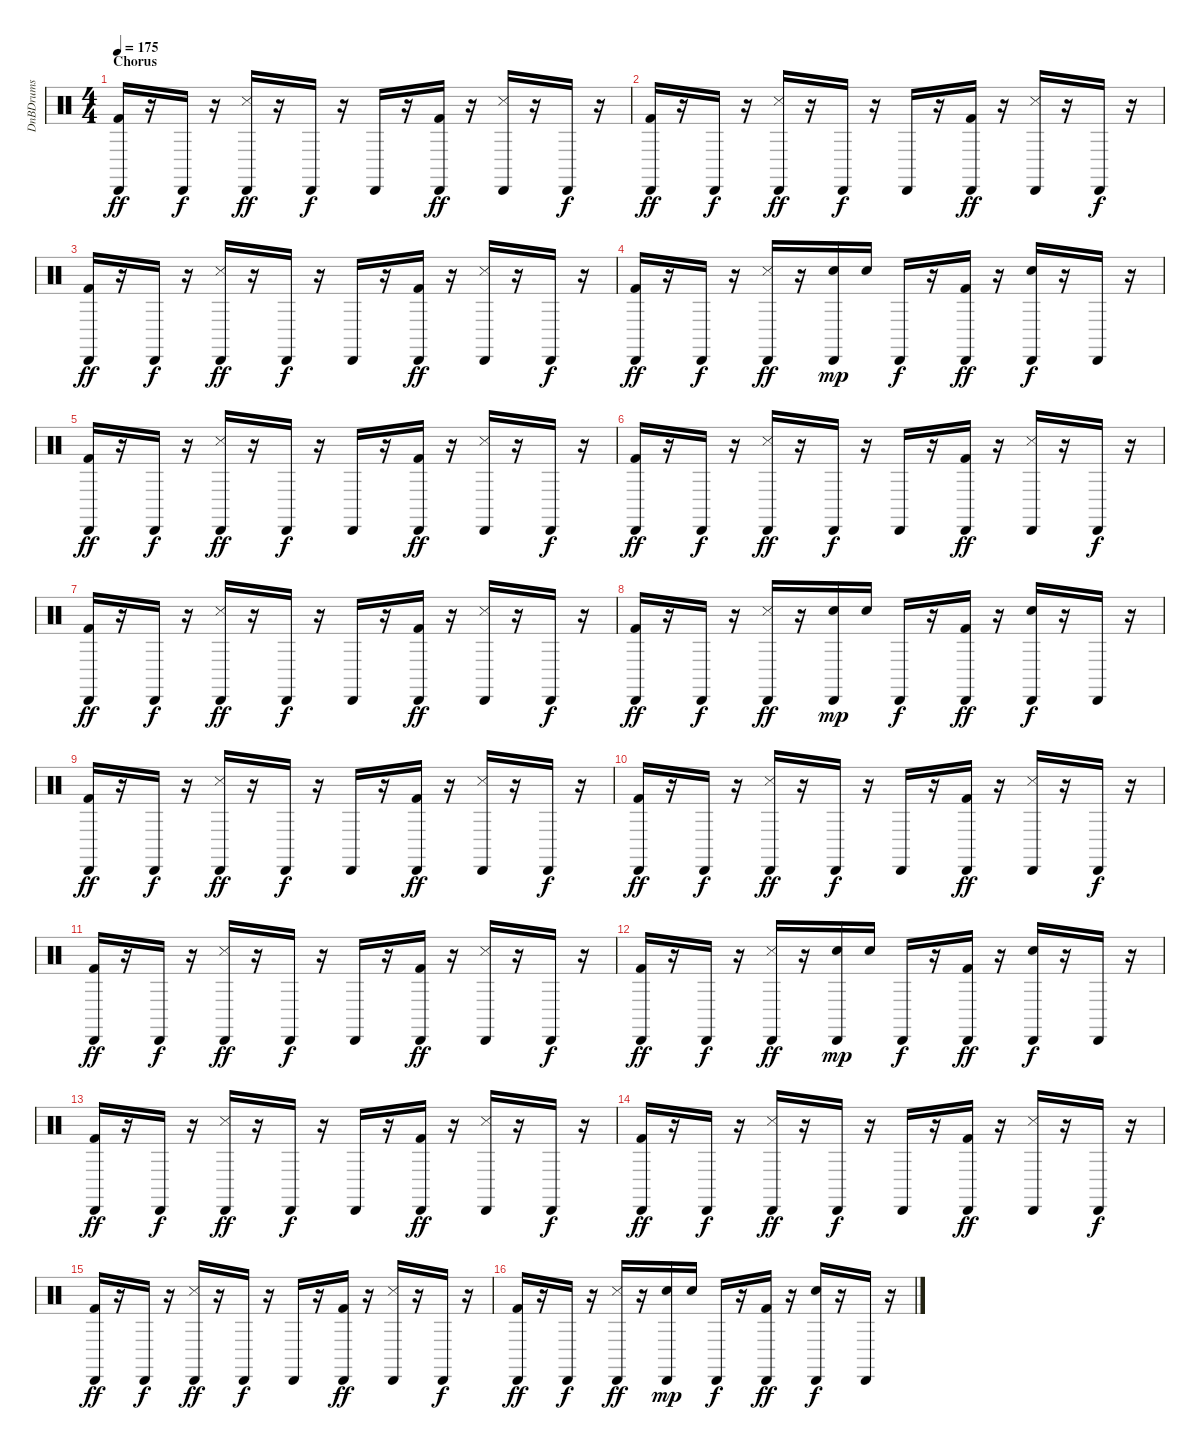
\track ("DnBDrums" "DnBDrums") {instrument percussion}
\staff {score}
\articulation defaults
\ts (4 4)
\section ("" "Chorus")
\tempo 175
\clef neutral
\ks c
("Kick (hit) 2" "Cabasa (hit)").16{dy ff} r.16 "Cabasa (hit)".16{dy f} r.16 ("Snare (side stick) 3" "Cabasa (hit)").16{dy ff} r.16 "Cabasa (hit)".16{dy f} r.16 "Cabasa (hit)".16 r.16 ("Kick (hit) 2" "Cabasa (hit)").16{dy ff} r.16 ("Snare (side stick) 3" "Cabasa (hit)").16 r.16 "Cabasa (hit)".16{dy f} r.16 |
("Kick (hit) 2" "Cabasa (hit)").16{dy ff} r.16 "Cabasa (hit)".16{dy f} r.16 ("Snare (side stick) 3" "Cabasa (hit)").16{dy ff} r.16 "Cabasa (hit)".16{dy f} r.16 "Cabasa (hit)".16 r.16 ("Kick (hit) 2" "Cabasa (hit)").16{dy ff} r.16 ("Snare (side stick) 3" "Cabasa (hit)").16 r.16 "Cabasa (hit)".16{dy f} r.16 |
("Kick (hit) 2" "Cabasa (hit)").16{dy ff} r.16 "Cabasa (hit)".16{dy f} r.16 ("Snare (side stick) 3" "Cabasa (hit)").16{dy ff} r.16 "Cabasa (hit)".16{dy f} r.16 "Cabasa (hit)".16 r.16 ("Kick (hit) 2" "Cabasa (hit)").16{dy ff} r.16 ("Snare (side stick) 3" "Cabasa (hit)").16 r.16 "Cabasa (hit)".16{dy f} r.16 |
("Kick (hit) 2" "Cabasa (hit)").16{dy ff} r.16 "Cabasa (hit)".16{dy f} r.16 ("Snare (side stick) 3" "Cabasa (hit)").16{dy ff} r.16 ("Electric Snare (hit)" "Cabasa (hit)").16{dy mp} "Electric Snare (hit)".16 "Cabasa (hit)".16{dy f} r.16 ("Kick (hit) 2" "Cabasa (hit)").16{dy ff} r.16 ("Electric Snare (hit)" "Cabasa (hit)").16{dy f} r.16 "Cabasa (hit)".16 r.16 |
("Kick (hit) 2" "Cabasa (hit)").16{dy ff} r.16 "Cabasa (hit)".16{dy f} r.16 ("Snare (side stick) 3" "Cabasa (hit)").16{dy ff} r.16 "Cabasa (hit)".16{dy f} r.16 "Cabasa (hit)".16 r.16 ("Kick (hit) 2" "Cabasa (hit)").16{dy ff} r.16 ("Snare (side stick) 3" "Cabasa (hit)").16 r.16 "Cabasa (hit)".16{dy f} r.16 |
("Kick (hit) 2" "Cabasa (hit)").16{dy ff} r.16 "Cabasa (hit)".16{dy f} r.16 ("Snare (side stick) 3" "Cabasa (hit)").16{dy ff} r.16 "Cabasa (hit)".16{dy f} r.16 "Cabasa (hit)".16 r.16 ("Kick (hit) 2" "Cabasa (hit)").16{dy ff} r.16 ("Snare (side stick) 3" "Cabasa (hit)").16 r.16 "Cabasa (hit)".16{dy f} r.16 |
("Kick (hit) 2" "Cabasa (hit)").16{dy ff} r.16 "Cabasa (hit)".16{dy f} r.16 ("Snare (side stick) 3" "Cabasa (hit)").16{dy ff} r.16 "Cabasa (hit)".16{dy f} r.16 "Cabasa (hit)".16 r.16 ("Kick (hit) 2" "Cabasa (hit)").16{dy ff} r.16 ("Snare (side stick) 3" "Cabasa (hit)").16 r.16 "Cabasa (hit)".16{dy f} r.16 |
("Kick (hit) 2" "Cabasa (hit)").16{dy ff} r.16 "Cabasa (hit)".16{dy f} r.16 ("Snare (side stick) 3" "Cabasa (hit)").16{dy ff} r.16 ("Electric Snare (hit)" "Cabasa (hit)").16{dy mp} "Electric Snare (hit)".16 "Cabasa (hit)".16{dy f} r.16 ("Kick (hit) 2" "Cabasa (hit)").16{dy ff} r.16 ("Electric Snare (hit)" "Cabasa (hit)").16{dy f} r.16 "Cabasa (hit)".16 r.16 |
("Kick (hit) 2" "Cabasa (hit)").16{dy ff} r.16 "Cabasa (hit)".16{dy f} r.16 ("Snare (side stick) 3" "Cabasa (hit)").16{dy ff} r.16 "Cabasa (hit)".16{dy f} r.16 "Cabasa (hit)".16 r.16 ("Kick (hit) 2" "Cabasa (hit)").16{dy ff} r.16 ("Snare (side stick) 3" "Cabasa (hit)").16 r.16 "Cabasa (hit)".16{dy f} r.16 |
("Kick (hit) 2" "Cabasa (hit)").16{dy ff} r.16 "Cabasa (hit)".16{dy f} r.16 ("Snare (side stick) 3" "Cabasa (hit)").16{dy ff} r.16 "Cabasa (hit)".16{dy f} r.16 "Cabasa (hit)".16 r.16 ("Kick (hit) 2" "Cabasa (hit)").16{dy ff} r.16 ("Snare (side stick) 3" "Cabasa (hit)").16 r.16 "Cabasa (hit)".16{dy f} r.16 |
("Kick (hit) 2" "Cabasa (hit)").16{dy ff} r.16 "Cabasa (hit)".16{dy f} r.16 ("Snare (side stick) 3" "Cabasa (hit)").16{dy ff} r.16 "Cabasa (hit)".16{dy f} r.16 "Cabasa (hit)".16 r.16 ("Kick (hit) 2" "Cabasa (hit)").16{dy ff} r.16 ("Snare (side stick) 3" "Cabasa (hit)").16 r.16 "Cabasa (hit)".16{dy f} r.16 |
("Kick (hit) 2" "Cabasa (hit)").16{dy ff} r.16 "Cabasa (hit)".16{dy f} r.16 ("Snare (side stick) 3" "Cabasa (hit)").16{dy ff} r.16 ("Electric Snare (hit)" "Cabasa (hit)").16{dy mp} "Electric Snare (hit)".16 "Cabasa (hit)".16{dy f} r.16 ("Kick (hit) 2" "Cabasa (hit)").16{dy ff} r.16 ("Electric Snare (hit)" "Cabasa (hit)").16{dy f} r.16 "Cabasa (hit)".16 r.16 |
("Kick (hit) 2" "Cabasa (hit)").16{dy ff} r.16 "Cabasa (hit)".16{dy f} r.16 ("Snare (side stick) 3" "Cabasa (hit)").16{dy ff} r.16 "Cabasa (hit)".16{dy f} r.16 "Cabasa (hit)".16 r.16 ("Kick (hit) 2" "Cabasa (hit)").16{dy ff} r.16 ("Snare (side stick) 3" "Cabasa (hit)").16 r.16 "Cabasa (hit)".16{dy f} r.16 |
("Kick (hit) 2" "Cabasa (hit)").16{dy ff} r.16 "Cabasa (hit)".16{dy f} r.16 ("Snare (side stick) 3" "Cabasa (hit)").16{dy ff} r.16 "Cabasa (hit)".16{dy f} r.16 "Cabasa (hit)".16 r.16 ("Kick (hit) 2" "Cabasa (hit)").16{dy ff} r.16 ("Snare (side stick) 3" "Cabasa (hit)").16 r.16 "Cabasa (hit)".16{dy f} r.16 |
("Kick (hit) 2" "Cabasa (hit)").16{dy ff} r.16 "Cabasa (hit)".16{dy f} r.16 ("Snare (side stick) 3" "Cabasa (hit)").16{dy ff} r.16 "Cabasa (hit)".16{dy f} r.16 "Cabasa (hit)".16 r.16 ("Kick (hit) 2" "Cabasa (hit)").16{dy ff} r.16 ("Snare (side stick) 3" "Cabasa (hit)").16 r.16 "Cabasa (hit)".16{dy f} r.16 |
("Kick (hit) 2" "Cabasa (hit)").16{dy ff} r.16 "Cabasa (hit)".16{dy f} r.16 ("Snare (side stick) 3" "Cabasa (hit)").16{dy ff} r.16 ("Electric Snare (hit)" "Cabasa (hit)").16{dy mp} "Electric Snare (hit)".16 "Cabasa (hit)".16{dy f} r.16 ("Kick (hit) 2" "Cabasa (hit)").16{dy ff} r.16 ("Electric Snare (hit)" "Cabasa (hit)").16{dy f} r.16 "Cabasa (hit)".16 r.16
